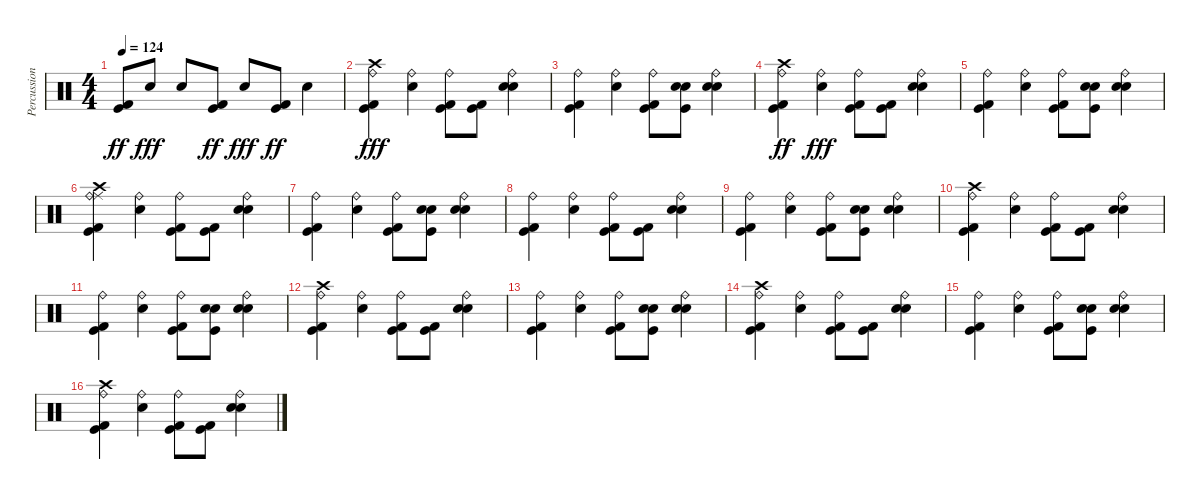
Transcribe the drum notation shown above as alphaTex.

\track ("Percussion" "Percussion") {instrument percussion}
\staff {score}
\articulation defaults
\ts (4 4)
\tempo 124
\clef neutral
\ks c
("Kick (hit) 2" "Kick (hit)").8{dy ff} "Hand Clap (hit)".8{dy fff} "Hand Clap (hit)".8 ("Kick (hit) 2" "Kick (hit)").8{dy ff} "Hand Clap (hit)".8{dy fff} ("Kick (hit) 2" "Kick (hit)").8{dy ff} "Hand Clap (hit)".4 |
("Ride (bell)" "Kick (hit) 2" "Kick (hit)" "Crash high (hit)").4{dy fff} ("Ride (bell)" "Snare (hit) 2").4 ("Ride (bell)" "Kick (hit) 2" "Kick (hit)").8 ("Kick (hit) 2" "Kick (hit)").8 ("Ride (bell)" "Snare (hit) 2" "Electric Snare (hit)").4 |
("Ride (bell)" "Kick (hit) 2" "Kick (hit)").4 ("Ride (bell)" "Snare (hit) 2").4 ("Ride (bell)" "Kick (hit) 2" "Kick (hit)").8 ("Snare (hit) 2" "Kick (hit)" "Electric Snare (hit)").8 ("Ride (bell)" "Snare (hit) 2" "Electric Snare (hit)").4 |
("Ride (bell)" "Kick (hit) 2" "Kick (hit)" "Crash high (hit)").4{dy ff} ("Ride (bell)" "Snare (hit) 2").4{dy fff} ("Ride (bell)" "Kick (hit) 2" "Kick (hit)").8 ("Kick (hit) 2" "Kick (hit)").8 ("Ride (bell)" "Snare (hit) 2" "Electric Snare (hit)").4 |
("Ride (bell)" "Kick (hit) 2" "Kick (hit)").4 ("Ride (bell)" "Snare (hit) 2").4 ("Ride (bell)" "Kick (hit) 2" "Kick (hit)").8 ("Snare (hit) 2" "Kick (hit)" "Electric Snare (hit)").8 ("Ride (bell)" "Snare (hit) 2" "Electric Snare (hit)").4 |
("Ride (middle)" "Ride (bell)" "Kick (hit) 2" "Kick (hit)" "Crash high (hit)").4 ("Ride (bell)" "Snare (hit) 2").4 ("Ride (bell)" "Kick (hit) 2" "Kick (hit)").8 ("Kick (hit) 2" "Kick (hit)").8 ("Ride (bell)" "Snare (hit) 2" "Electric Snare (hit)").4 |
("Ride (bell)" "Kick (hit) 2" "Kick (hit)").4 ("Ride (bell)" "Snare (hit) 2").4 ("Ride (bell)" "Kick (hit) 2" "Kick (hit)").8 ("Snare (hit) 2" "Kick (hit)" "Electric Snare (hit)").8 ("Ride (bell)" "Snare (hit) 2" "Electric Snare (hit)").4 |
("Ride (bell)" "Kick (hit) 2" "Kick (hit)").4 ("Ride (bell)" "Snare (hit) 2").4 ("Ride (bell)" "Kick (hit) 2" "Kick (hit)").8 ("Kick (hit) 2" "Kick (hit)").8 ("Ride (bell)" "Snare (hit) 2" "Electric Snare (hit)").4 |
("Ride (bell)" "Kick (hit) 2" "Kick (hit)").4 ("Ride (bell)" "Snare (hit) 2").4 ("Ride (bell)" "Kick (hit) 2" "Kick (hit)").8 ("Snare (hit) 2" "Kick (hit)" "Electric Snare (hit)").8 ("Ride (bell)" "Snare (hit) 2" "Electric Snare (hit)").4 |
("Ride (bell)" "Kick (hit) 2" "Kick (hit)" "Crash high (hit)").4 ("Ride (bell)" "Snare (hit) 2").4 ("Ride (bell)" "Kick (hit) 2" "Kick (hit)").8 ("Kick (hit) 2" "Kick (hit)").8 ("Ride (bell)" "Snare (hit) 2" "Electric Snare (hit)").4 |
("Ride (bell)" "Kick (hit) 2" "Kick (hit)").4 ("Ride (bell)" "Snare (hit) 2").4 ("Ride (bell)" "Kick (hit) 2" "Kick (hit)").8 ("Snare (hit) 2" "Kick (hit)" "Electric Snare (hit)").8 ("Ride (bell)" "Snare (hit) 2" "Electric Snare (hit)").4 |
("Ride (bell)" "Kick (hit) 2" "Kick (hit)" "Crash high (hit)").4 ("Ride (bell)" "Snare (hit) 2").4 ("Ride (bell)" "Kick (hit) 2" "Kick (hit)").8 ("Kick (hit) 2" "Kick (hit)").8 ("Ride (bell)" "Snare (hit) 2" "Electric Snare (hit)").4 |
("Ride (bell)" "Kick (hit) 2" "Kick (hit)").4 ("Ride (bell)" "Snare (hit) 2").4 ("Ride (bell)" "Kick (hit) 2" "Kick (hit)").8 ("Snare (hit) 2" "Kick (hit)" "Electric Snare (hit)").8 ("Ride (bell)" "Snare (hit) 2" "Electric Snare (hit)").4 |
("Ride (bell)" "Kick (hit) 2" "Kick (hit)" "Crash high (hit)").4 ("Ride (bell)" "Snare (hit) 2").4 ("Ride (bell)" "Kick (hit) 2" "Kick (hit)").8 ("Kick (hit) 2" "Kick (hit)").8 ("Ride (bell)" "Snare (hit) 2" "Electric Snare (hit)").4 |
("Ride (bell)" "Kick (hit) 2" "Kick (hit)").4 ("Ride (bell)" "Snare (hit) 2").4 ("Ride (bell)" "Kick (hit) 2" "Kick (hit)").8 ("Snare (hit) 2" "Kick (hit)" "Electric Snare (hit)").8 ("Ride (bell)" "Snare (hit) 2" "Electric Snare (hit)").4 |
("Ride (bell)" "Kick (hit) 2" "Kick (hit)" "Crash high (hit)").4 ("Ride (bell)" "Snare (hit) 2").4 ("Ride (bell)" "Kick (hit) 2" "Kick (hit)").8 ("Kick (hit) 2" "Kick (hit)").8 ("Ride (bell)" "Snare (hit) 2" "Electric Snare (hit)").4
